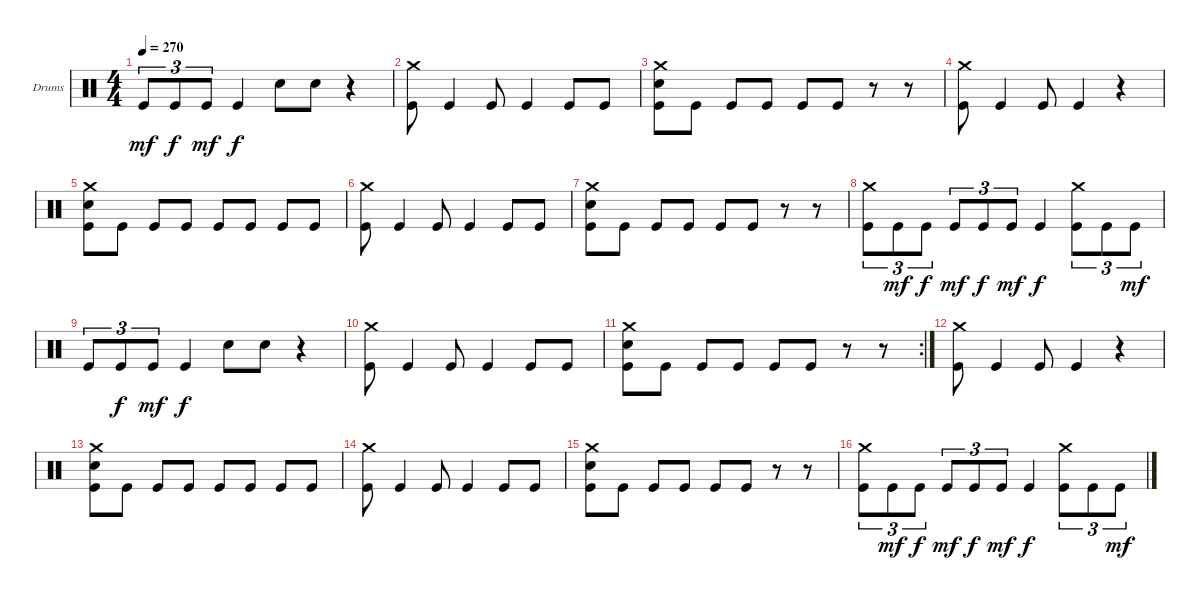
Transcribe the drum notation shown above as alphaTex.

\bracketExtendMode groupsimilarinstruments
\firstSystemTrackNameOrientation horizontal
\otherSystemsTrackNameOrientation horizontal
\track ("Drumkit" "Drums") {instrument percussion}
\staff {score}
\articulation defaults
\ts (4 4)
\tempo 270
\clef neutral
\ks c "Kick (hit)".8{tu (3 2) dy mf} "Kick (hit)".8{tu (3 2) dy f} "Kick (hit)".8{tu (3 2) dy mf} "Kick (hit)".4{dy f} "Snare (hit) 2".8 "Snare (hit) 2".8
r.4 |
("Crash medium (hit)" "Kick (hit)").8 "Kick (hit)".4 "Kick (hit)".8 "Kick (hit)".4 "Kick (hit)".8 "Kick (hit)".8 |
("Crash medium (hit)" "Snare (hit) 2" "Kick (hit)").8 "Kick (hit)".8 "Kick (hit)".8 "Kick (hit)".8 "Kick (hit)".8 "Kick (hit)".8 r.8 r.8 |
("Crash medium (hit)" "Kick (hit)").8 "Kick (hit)".4 "Kick (hit)".8 "Kick (hit)".4 r.4 |
("Crash medium (hit)" "Snare (hit) 2" "Kick (hit)").8 "Kick (hit)".8 "Kick (hit)".8 "Kick (hit)".8 "Kick (hit)".8 "Kick (hit)".8 "Kick (hit)".8 "Kick (hit)".8 |
("Crash medium (hit)" "Kick (hit)").8 "Kick (hit)".4 "Kick (hit)".8 "Kick (hit)".4 "Kick (hit)".8 "Kick (hit)".8 |
("Crash medium (hit)" "Snare (hit) 2" "Kick (hit)").8 "Kick (hit)".8 "Kick (hit)".8 "Kick (hit)".8 "Kick (hit)".8 "Kick (hit)".8 r.8 r.8 |
("Crash medium (hit)" "Kick (hit)").8{tu (3 2)} "Kick (hit)".8{tu (3 2) dy mf} "Kick (hit)".8{tu (3 2) dy f} "Kick (hit)".8{tu (3 2) dy mf} "Kick (hit)".8{tu (3 2) dy f} "Kick (hit)".8{tu (3 2) dy mf} "Kick (hit)".4{dy f} ("Crash medium (hit)" "Kick (hit)").8{tu (3 2)} "Kick (hit)".8{tu (3 2)} "Kick (hit)".8{tu (3 2) dy mf} |
"Kick (hit)".8{tu (3 2)} "Kick (hit)".8{tu (3 2) dy f} "Kick (hit)".8{tu (3 2) dy mf} "Kick (hit)".4{dy f} "Snare (hit) 2".8 "Snare (hit) 2".8 r.4 |
("Crash medium (hit)" "Kick (hit)").8 "Kick (hit)".4 "Kick (hit)".8 "Kick (hit)".4 "Kick (hit)".8 "Kick (hit)".8 |
\rc 2
("Crash medium (hit)" "Snare (hit) 2" "Kick (hit)").8 "Kick (hit)".8 "Kick (hit)".8 "Kick (hit)".8 "Kick (hit)".8 "Kick (hit)".8 r.8 r.8 |
("Crash medium (hit)" "Kick (hit)").8 "Kick (hit)".4 "Kick (hit)".8 "Kick (hit)".4 r.4 |
("Crash medium (hit)" "Snare (hit) 2" "Kick (hit)").8 "Kick (hit)".8 "Kick (hit)".8 "Kick (hit)".8 "Kick (hit)".8 "Kick (hit)".8 "Kick (hit)".8 "Kick (hit)".8 |
("Crash medium (hit)" "Kick (hit)").8 "Kick (hit)".4 "Kick (hit)".8 "Kick (hit)".4 "Kick (hit)".8 "Kick (hit)".8 |
("Crash medium (hit)" "Snare (hit) 2" "Kick (hit)").8 "Kick (hit)".8 "Kick (hit)".8 "Kick (hit)".8 "Kick (hit)".8 "Kick (hit)".8 r.8 r.8 |
("Crash medium (hit)" "Kick (hit)").8{tu (3 2)} "Kick (hit)".8{tu (3 2) dy mf} "Kick (hit)".8{tu (3 2) dy f} "Kick (hit)".8{tu (3 2) dy mf} "Kick (hit)".8{tu (3 2) dy f} "Kick (hit)".8{tu (3 2) dy mf} "Kick (hit)".4{dy f} ("Crash medium (hit)" "Kick (hit)").8{tu (3 2)} "Kick (hit)".8{tu (3 2)} "Kick (hit)".8{tu (3 2) dy mf}
